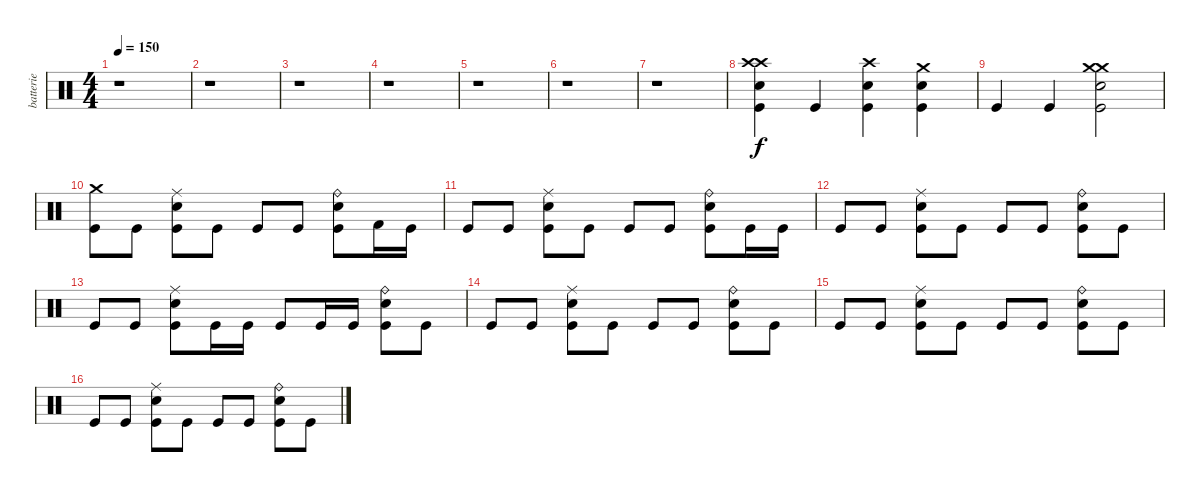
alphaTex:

\track ("batterie" "batterie") {instrument percussion}
\staff {score}
\articulation defaults
\ts (4 4)
\tempo 150
\clef neutral
\ks c
r.1{dy f} |
r.1 |
r.1 |
r.1 |
r.1 |
r.1 |
r.1 |
("Crash high (hit)" "Crash high (hit)" "Snare (hit) 2" "Kick (hit)").4 "Kick (hit)".4 ("Crash high (hit)" "Snare (hit) 2" "Kick (hit)").4 ("Crash medium (hit)" "Snare (hit) 2" "Kick (hit)").4 |
"Kick (hit)".4 "Kick (hit)".4 ("Crash medium (hit)" "Crash medium (hit)" "Snare (hit) 2" "Kick (hit)").2 |
("Crash medium (hit)" "Kick (hit)").8 "Kick (hit)".8 ("Ride (middle)" "Snare (hit) 2" "Kick (hit)").8 "Kick (hit)".8 "Kick (hit)".8 "Kick (hit)".8 ("Ride (bell)" "Snare (hit) 2" "Kick (hit)").8 "Kick (hit) 2".16 "Kick (hit)".16 |
"Kick (hit)".8 "Kick (hit)".8 ("Ride (middle)" "Snare (hit) 2" "Kick (hit)").8 "Kick (hit)".8 "Kick (hit)".8 "Kick (hit)".8 ("Ride (bell)" "Snare (hit) 2" "Kick (hit)").8 "Kick (hit)".16 "Kick (hit)".16 |
"Kick (hit)".8 "Kick (hit)".8 ("Ride (middle)" "Snare (hit) 2" "Kick (hit)").8 "Kick (hit)".8 "Kick (hit)".8 "Kick (hit)".8 ("Ride (bell)" "Snare (hit) 2" "Kick (hit)").8 "Kick (hit)".8 |
"Kick (hit)".8 "Kick (hit)".8 ("Ride (middle)" "Snare (hit) 2" "Kick (hit)").8 "Kick (hit)".16 "Kick (hit)".16 "Kick (hit)".8 "Kick (hit)".16 "Kick (hit)".16 ("Ride (bell)" "Snare (hit) 2" "Kick (hit)").8 "Kick (hit)".8 |
"Kick (hit)".8 "Kick (hit)".8 ("Ride (middle)" "Snare (hit) 2" "Kick (hit)").8 "Kick (hit)".8 "Kick (hit)".8 "Kick (hit)".8 ("Ride (bell)" "Snare (hit) 2" "Kick (hit)").8 "Kick (hit)".8 |
"Kick (hit)".8 "Kick (hit)".8 ("Ride (middle)" "Snare (hit) 2" "Kick (hit)").8 "Kick (hit)".8 "Kick (hit)".8 "Kick (hit)".8 ("Ride (bell)" "Snare (hit) 2" "Kick (hit)").8 "Kick (hit)".8 |
"Kick (hit)".8 "Kick (hit)".8 ("Ride (middle)" "Snare (hit) 2" "Kick (hit)").8 "Kick (hit)".8 "Kick (hit)".8 "Kick (hit)".8 ("Ride (bell)" "Snare (hit) 2" "Kick (hit)").8 "Kick (hit)".8
